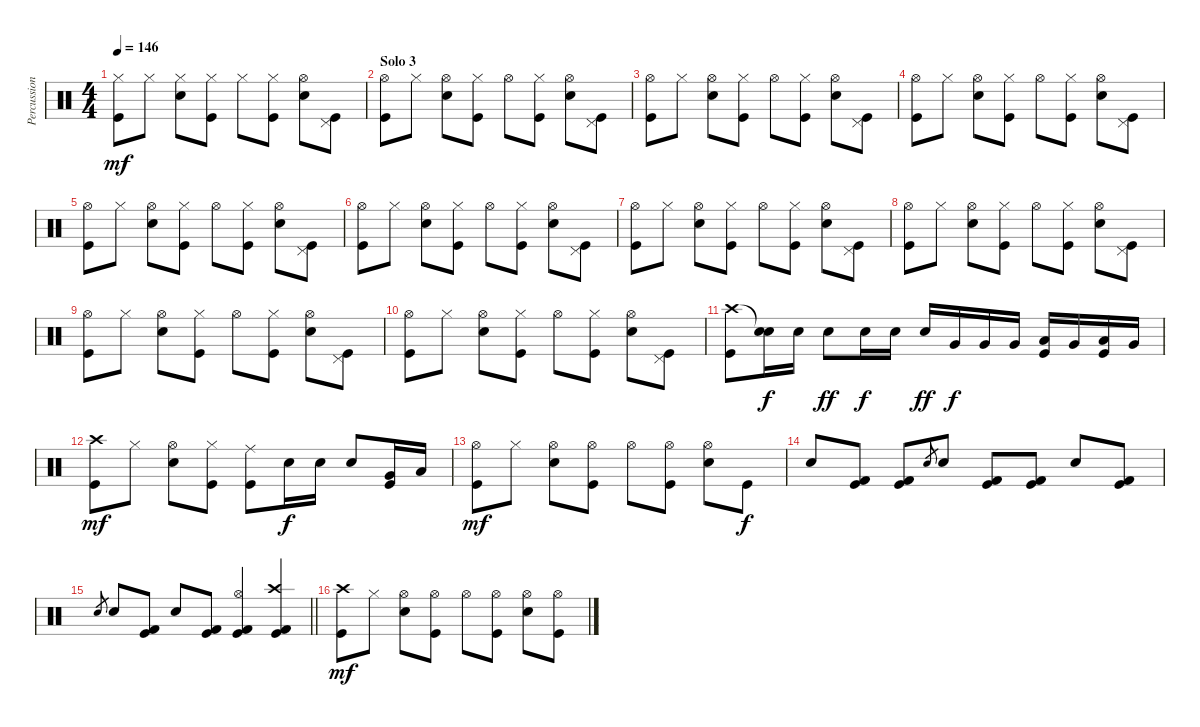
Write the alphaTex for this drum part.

\track ("Percussion" "Percussion") {instrument percussion}
\staff {score}
\articulation defaults
\ts (4 4)
\tempo 146
\clef neutral
\ks c
("Hi-Hat (closed)" "Kick (hit)").8{dy mf} "Hi-Hat (closed)".8 ("Hi-Hat (closed)" "Snare (hit) 2").8 ("Hi-Hat (closed)" "Kick (hit)").8 "Hi-Hat (closed)".8 ("Hi-Hat (closed)" "Kick (hit)").8 ("Hi-Hat (open)" "Snare (hit) 2").8 ("Pedal Hi-Hat (hit)" "Kick (hit)").8 |
\section ("" "Solo 3")
("Hi-Hat (open)" "Kick (hit)").8 "Hi-Hat (closed)".8 ("Hi-Hat (open)" "Snare (hit) 2").8 ("Hi-Hat (closed)" "Kick (hit)").8 "Hi-Hat (open)".8 ("Hi-Hat (closed)" "Kick (hit)").8 ("Hi-Hat (open)" "Snare (hit) 2").8 ("Pedal Hi-Hat (hit)" "Kick (hit)").8 |
("Hi-Hat (open)" "Kick (hit)").8 "Hi-Hat (closed)".8 ("Hi-Hat (open)" "Snare (hit) 2").8 ("Hi-Hat (closed)" "Kick (hit)").8 "Hi-Hat (open)".8 ("Hi-Hat (closed)" "Kick (hit)").8 ("Hi-Hat (open)" "Snare (hit) 2").8 ("Pedal Hi-Hat (hit)" "Kick (hit)").8 |
("Hi-Hat (open)" "Kick (hit)").8 "Hi-Hat (closed)".8 ("Hi-Hat (open)" "Snare (hit) 2").8 ("Hi-Hat (closed)" "Kick (hit)").8 "Hi-Hat (open)".8 ("Hi-Hat (closed)" "Kick (hit)").8 ("Hi-Hat (open)" "Snare (hit) 2").8 ("Pedal Hi-Hat (hit)" "Kick (hit)").8 |
("Hi-Hat (open)" "Kick (hit)").8 "Hi-Hat (closed)".8 ("Hi-Hat (open)" "Snare (hit) 2").8 ("Hi-Hat (closed)" "Kick (hit)").8 "Hi-Hat (open)".8 ("Hi-Hat (closed)" "Kick (hit)").8 ("Hi-Hat (open)" "Snare (hit) 2").8 ("Pedal Hi-Hat (hit)" "Kick (hit)").8 |
("Hi-Hat (open)" "Kick (hit)").8 "Hi-Hat (closed)".8 ("Hi-Hat (open)" "Snare (hit) 2").8 ("Hi-Hat (closed)" "Kick (hit)").8 "Hi-Hat (open)".8 ("Hi-Hat (closed)" "Kick (hit)").8 ("Hi-Hat (open)" "Snare (hit) 2").8 ("Pedal Hi-Hat (hit)" "Kick (hit)").8 |
("Hi-Hat (open)" "Kick (hit)").8 "Hi-Hat (closed)".8 ("Hi-Hat (open)" "Snare (hit) 2").8 ("Hi-Hat (closed)" "Kick (hit)").8 "Hi-Hat (open)".8 ("Hi-Hat (closed)" "Kick (hit)").8 ("Hi-Hat (open)" "Snare (hit) 2").8 ("Pedal Hi-Hat (hit)" "Kick (hit)").8 |
("Hi-Hat (open)" "Kick (hit)").8 "Hi-Hat (closed)".8 ("Hi-Hat (open)" "Snare (hit) 2").8 ("Hi-Hat (closed)" "Kick (hit)").8 "Hi-Hat (open)".8 ("Hi-Hat (closed)" "Kick (hit)").8 ("Hi-Hat (open)" "Snare (hit) 2").8 ("Pedal Hi-Hat (hit)" "Kick (hit)").8 |
("Hi-Hat (open)" "Kick (hit)").8 "Hi-Hat (closed)".8 ("Hi-Hat (open)" "Snare (hit) 2").8 ("Hi-Hat (closed)" "Kick (hit)").8 "Hi-Hat (open)".8 ("Hi-Hat (closed)" "Kick (hit)").8 ("Hi-Hat (open)" "Snare (hit) 2").8 ("Pedal Hi-Hat (hit)" "Kick (hit)").8 |
("Hi-Hat (open)" "Kick (hit)").8 "Hi-Hat (closed)".8 ("Hi-Hat (open)" "Snare (hit) 2").8 ("Hi-Hat (closed)" "Kick (hit)").8 "Hi-Hat (open)".8 ("Hi-Hat (closed)" "Kick (hit)").8 ("Hi-Hat (open)" "Snare (hit) 2").8 ("Pedal Hi-Hat (hit)" "Kick (hit)").8 |
("Crash high (hit)" "Kick (hit)").8 ("Snare (hit)"{t} "Snare (hit) 2").16{dy f} "Snare (hit) 2".16 "Snare (hit) 2".8{dy ff} "Snare (hit) 2".16{dy f} "Snare (hit) 2".16 "Snare (hit) 2".16{dy ff} "Very Low Tom (hit)".16{dy f} "Very Low Tom (hit)".16 "Very Low Tom (hit)".16 ("Low Floor Tom (hit)" "Kick (hit)").16 "Very Low Tom (hit)".16 ("Low Floor Tom (hit)" "Kick (hit)").16 "Very Low Tom (hit)".16 |
("Crash high (hit)" "Kick (hit)").8{dy mf} "Hi-Hat (closed)".8 ("Hi-Hat (open)" "Snare (hit) 2").8 ("Hi-Hat (closed)" "Kick (hit)").8 ("Ride (middle)" "Kick (hit)").8 "Snare (hit) 2".16{dy f} "Snare (hit) 2".16 "Snare (hit) 2".8 ("Very Low Tom (hit)" "Kick (hit)").16 "Low Floor Tom (hit)".16 |
("Hi-Hat (open)" "Kick (hit)").8{dy mf} "Hi-Hat (closed)".8 ("Hi-Hat (open)" "Snare (hit) 2").8 ("Hi-Hat (open)" "Kick (hit)").8 "Hi-Hat (open)".8 ("Hi-Hat (open)" "Kick (hit)").8 ("Hi-Hat (open)" "Snare (hit) 2").8 "Kick (hit)".8{dy f} |
"Snare (hit) 2".8 ("Kick (hit) 2" "Kick (hit)").8 ("Kick (hit) 2" "Kick (hit)").8 "Snare (hit) 2".8{gr} "Snare (hit) 2".8 ("Kick (hit) 2" "Kick (hit)").8 ("Kick (hit) 2" "Kick (hit)").8 "Snare (hit) 2".8 ("Kick (hit) 2" "Kick (hit)").8 |
\barLineRight lightlight "Snare (hit) 2".8{gr} "Snare (hit) 2".8
("Kick (hit) 2" "Kick (hit)").8 "Snare (hit) 2".8 ("Kick (hit) 2" "Kick (hit)").8 ("Hi-Hat (open)" "Kick (hit) 2" "Kick (hit)").4 ("Crash high (hit)" "Kick (hit) 2" "Kick (hit)").4 |
("Crash high (hit)" "Kick (hit)").8{dy mf} "Hi-Hat (closed)".8 ("Hi-Hat (open)" "Snare (hit) 2").8 ("Hi-Hat (open)" "Kick (hit)").8 "Hi-Hat (open)".8 ("Hi-Hat (open)" "Kick (hit)").8 ("Hi-Hat (open)" "Snare (hit) 2").8 ("Hi-Hat (open)" "Kick (hit)").8
